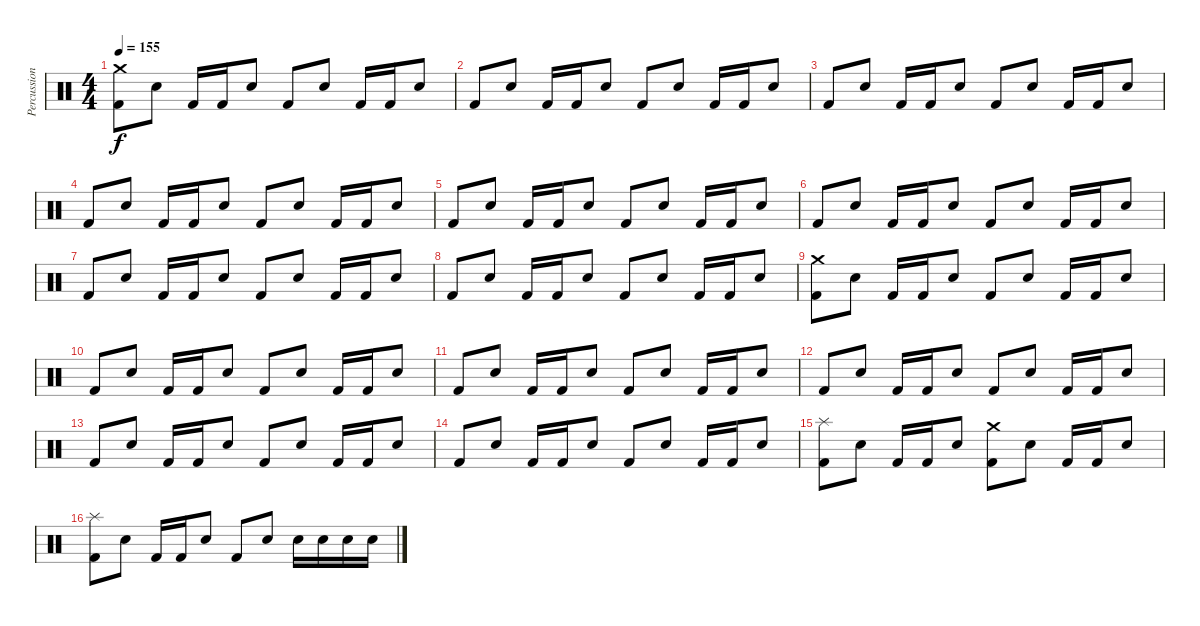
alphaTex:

\track ("Percussions" "Percussion") {instrument percussion}
\staff {score}
\articulation defaults
\ts (4 4)
\tempo 155
\clef neutral
\ks c
("Crash medium (hit)" "Kick (hit) 2").8{dy f} "Snare (hit) 2".8 "Kick (hit) 2".16 "Kick (hit) 2".16 "Snare (hit) 2".8 "Kick (hit) 2".8 "Snare (hit) 2".8 "Kick (hit) 2".16 "Kick (hit) 2".16 "Snare (hit) 2".8 |
"Kick (hit) 2".8 "Snare (hit) 2".8 "Kick (hit) 2".16 "Kick (hit) 2".16 "Snare (hit) 2".8 "Kick (hit) 2".8 "Snare (hit) 2".8 "Kick (hit) 2".16 "Kick (hit) 2".16 "Snare (hit) 2".8 |
"Kick (hit) 2".8 "Snare (hit) 2".8 "Kick (hit) 2".16 "Kick (hit) 2".16 "Snare (hit) 2".8 "Kick (hit) 2".8 "Snare (hit) 2".8 "Kick (hit) 2".16 "Kick (hit) 2".16 "Snare (hit) 2".8 |
"Kick (hit) 2".8 "Snare (hit) 2".8 "Kick (hit) 2".16 "Kick (hit) 2".16 "Snare (hit) 2".8 "Kick (hit) 2".8 "Snare (hit) 2".8 "Kick (hit) 2".16 "Kick (hit) 2".16 "Snare (hit) 2".8 |
"Kick (hit) 2".8 "Snare (hit) 2".8 "Kick (hit) 2".16 "Kick (hit) 2".16 "Snare (hit) 2".8 "Kick (hit) 2".8 "Snare (hit) 2".8 "Kick (hit) 2".16 "Kick (hit) 2".16 "Snare (hit) 2".8 |
"Kick (hit) 2".8 "Snare (hit) 2".8 "Kick (hit) 2".16 "Kick (hit) 2".16 "Snare (hit) 2".8 "Kick (hit) 2".8 "Snare (hit) 2".8 "Kick (hit) 2".16 "Kick (hit) 2".16 "Snare (hit) 2".8 |
"Kick (hit) 2".8 "Snare (hit) 2".8 "Kick (hit) 2".16 "Kick (hit) 2".16 "Snare (hit) 2".8 "Kick (hit) 2".8 "Snare (hit) 2".8 "Kick (hit) 2".16 "Kick (hit) 2".16 "Snare (hit) 2".8 |
"Kick (hit) 2".8 "Snare (hit) 2".8 "Kick (hit) 2".16 "Kick (hit) 2".16 "Snare (hit) 2".8 "Kick (hit) 2".8 "Snare (hit) 2".8 "Kick (hit) 2".16 "Kick (hit) 2".16 "Snare (hit) 2".8 |
("Crash medium (hit)" "Kick (hit) 2").8 "Snare (hit) 2".8 "Kick (hit) 2".16 "Kick (hit) 2".16 "Snare (hit) 2".8 "Kick (hit) 2".8 "Snare (hit) 2".8 "Kick (hit) 2".16 "Kick (hit) 2".16 "Snare (hit) 2".8 |
"Kick (hit) 2".8 "Snare (hit) 2".8 "Kick (hit) 2".16 "Kick (hit) 2".16 "Snare (hit) 2".8 "Kick (hit) 2".8 "Snare (hit) 2".8 "Kick (hit) 2".16 "Kick (hit) 2".16 "Snare (hit) 2".8 |
"Kick (hit) 2".8 "Snare (hit) 2".8 "Kick (hit) 2".16 "Kick (hit) 2".16 "Snare (hit) 2".8 "Kick (hit) 2".8 "Snare (hit) 2".8 "Kick (hit) 2".16 "Kick (hit) 2".16 "Snare (hit) 2".8 |
"Kick (hit) 2".8 "Snare (hit) 2".8 "Kick (hit) 2".16 "Kick (hit) 2".16 "Snare (hit) 2".8 "Kick (hit) 2".8 "Snare (hit) 2".8 "Kick (hit) 2".16 "Kick (hit) 2".16 "Snare (hit) 2".8 |
"Kick (hit) 2".8 "Snare (hit) 2".8 "Kick (hit) 2".16 "Kick (hit) 2".16 "Snare (hit) 2".8 "Kick (hit) 2".8 "Snare (hit) 2".8 "Kick (hit) 2".16 "Kick (hit) 2".16 "Snare (hit) 2".8 |
"Kick (hit) 2".8 "Snare (hit) 2".8 "Kick (hit) 2".16 "Kick (hit) 2".16 "Snare (hit) 2".8 "Kick (hit) 2".8 "Snare (hit) 2".8 "Kick (hit) 2".16 "Kick (hit) 2".16 "Snare (hit) 2".8 |
("Splash (hit)" "Kick (hit) 2").8 "Snare (hit) 2".8 "Kick (hit) 2".16 "Kick (hit) 2".16 "Snare (hit) 2".8 ("Crash medium (hit)" "Kick (hit) 2").8 "Snare (hit) 2".8 "Kick (hit) 2".16 "Kick (hit) 2".16 "Snare (hit) 2".8 |
("Splash (hit)" "Kick (hit) 2").8 "Snare (hit) 2".8 "Kick (hit) 2".16 "Kick (hit) 2".16 "Snare (hit) 2".8 "Kick (hit) 2".8 "Snare (hit) 2".8 "Snare (hit) 2".16 "Snare (hit) 2".16 "Snare (hit) 2".16 "Snare (hit) 2".16
